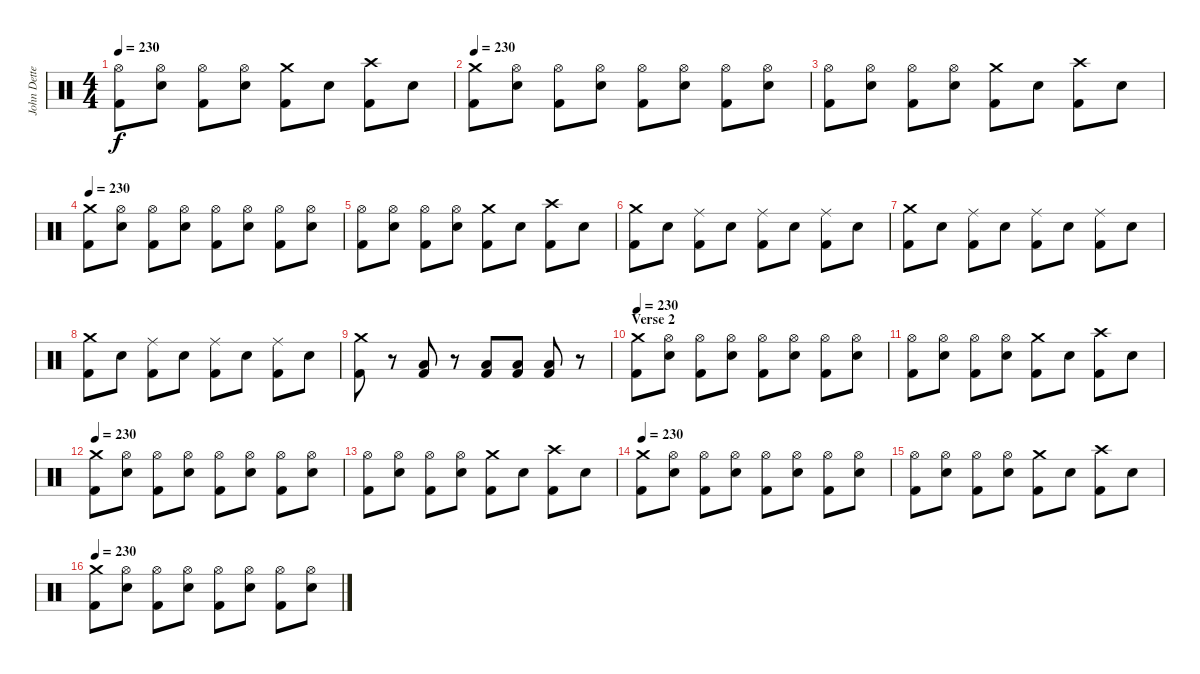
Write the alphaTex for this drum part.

\track ("John Dette" "John Dette") {instrument percussion}
\staff {score}
\articulation defaults
\ts (4 4)
\tempo 230
\clef neutral
\ks c
("Hi-Hat (open)" "Kick (hit) 2").8{dy f} ("Hi-Hat (open)" "Snare (hit) 2").8 ("Hi-Hat (open)" "Kick (hit) 2").8 ("Hi-Hat (open)" "Snare (hit) 2").8 ("Crash medium (hit)" "Kick (hit) 2").8 "Snare (hit) 2".8 ("Crash high (hit)" "Kick (hit) 2").8 "Snare (hit) 2".8 |
\tempo 230
("Crash medium (hit)" "Kick (hit) 2").8 ("Hi-Hat (open)" "Snare (hit) 2").8 ("Hi-Hat (open)" "Kick (hit) 2").8 ("Hi-Hat (open)" "Snare (hit) 2").8 ("Hi-Hat (open)" "Kick (hit) 2").8 ("Hi-Hat (open)" "Snare (hit) 2").8 ("Hi-Hat (open)" "Kick (hit) 2").8 ("Hi-Hat (open)" "Snare (hit) 2").8 |
("Hi-Hat (open)" "Kick (hit) 2").8 ("Hi-Hat (open)" "Snare (hit) 2").8 ("Hi-Hat (open)" "Kick (hit) 2").8 ("Hi-Hat (open)" "Snare (hit) 2").8 ("Crash medium (hit)" "Kick (hit) 2").8 "Snare (hit) 2".8 ("Crash high (hit)" "Kick (hit) 2").8 "Snare (hit) 2".8 |
\tempo 230
("Crash medium (hit)" "Kick (hit) 2").8 ("Hi-Hat (open)" "Snare (hit) 2").8 ("Hi-Hat (open)" "Kick (hit) 2").8 ("Hi-Hat (open)" "Snare (hit) 2").8 ("Hi-Hat (open)" "Kick (hit) 2").8 ("Hi-Hat (open)" "Snare (hit) 2").8 ("Hi-Hat (open)" "Kick (hit) 2").8 ("Hi-Hat (open)" "Snare (hit) 2").8 |
("Hi-Hat (open)" "Kick (hit) 2").8 ("Hi-Hat (open)" "Snare (hit) 2").8 ("Hi-Hat (open)" "Kick (hit) 2").8 ("Hi-Hat (open)" "Snare (hit) 2").8 ("Crash medium (hit)" "Kick (hit) 2").8 "Snare (hit) 2".8 ("Crash high (hit)" "Kick (hit) 2").8 "Snare (hit) 2".8 |
("Crash medium (hit)" "Kick (hit) 2").8 "Snare (hit) 2".8 ("Ride (middle)" "Kick (hit) 2").8 "Snare (hit) 2".8 ("Ride (middle)" "Kick (hit) 2").8 "Snare (hit) 2".8 ("Ride (middle)" "Kick (hit) 2").8 "Snare (hit) 2".8 |
("Crash medium (hit)" "Kick (hit) 2").8 "Snare (hit) 2".8 ("Ride (middle)" "Kick (hit) 2").8 "Snare (hit) 2".8 ("Ride (middle)" "Kick (hit) 2").8 "Snare (hit) 2".8 ("Ride (middle)" "Kick (hit) 2").8 "Snare (hit) 2".8 |
("Crash medium (hit)" "Kick (hit) 2").8 "Snare (hit) 2".8 ("Ride (middle)" "Kick (hit) 2").8 "Snare (hit) 2".8 ("Ride (middle)" "Kick (hit) 2").8 "Snare (hit) 2".8 ("Ride (middle)" "Kick (hit) 2").8 "Snare (hit) 2".8 |
("Crash medium (hit)" "Kick (hit) 2").8 r.8 ("Low Floor Tom (hit)" "Kick (hit) 2").8 r.8 ("Low Floor Tom (hit)" "Kick (hit) 2").8 ("Low Floor Tom (hit)" "Kick (hit) 2").8 ("Low Floor Tom (hit)" "Kick (hit) 2").8 r.8 |
\section ("" "Verse 2")
\tempo 230
("Crash medium (hit)" "Kick (hit) 2").8 ("Hi-Hat (open)" "Snare (hit) 2").8 ("Hi-Hat (open)" "Kick (hit) 2").8 ("Hi-Hat (open)" "Snare (hit) 2").8 ("Hi-Hat (open)" "Kick (hit) 2").8 ("Hi-Hat (open)" "Snare (hit) 2").8 ("Hi-Hat (open)" "Kick (hit) 2").8 ("Hi-Hat (open)" "Snare (hit) 2").8 |
("Hi-Hat (open)" "Kick (hit) 2").8 ("Hi-Hat (open)" "Snare (hit) 2").8 ("Hi-Hat (open)" "Kick (hit) 2").8 ("Hi-Hat (open)" "Snare (hit) 2").8 ("Crash medium (hit)" "Kick (hit) 2").8 "Snare (hit) 2".8 ("Crash high (hit)" "Kick (hit) 2").8 "Snare (hit) 2".8 |
\tempo 230
("Crash medium (hit)" "Kick (hit) 2").8 ("Hi-Hat (open)" "Snare (hit) 2").8 ("Hi-Hat (open)" "Kick (hit) 2").8 ("Hi-Hat (open)" "Snare (hit) 2").8 ("Hi-Hat (open)" "Kick (hit) 2").8 ("Hi-Hat (open)" "Snare (hit) 2").8 ("Hi-Hat (open)" "Kick (hit) 2").8 ("Hi-Hat (open)" "Snare (hit) 2").8 |
("Hi-Hat (open)" "Kick (hit) 2").8 ("Hi-Hat (open)" "Snare (hit) 2").8 ("Hi-Hat (open)" "Kick (hit) 2").8 ("Hi-Hat (open)" "Snare (hit) 2").8 ("Crash medium (hit)" "Kick (hit) 2").8 "Snare (hit) 2".8 ("Crash high (hit)" "Kick (hit) 2").8 "Snare (hit) 2".8 |
\tempo 230
("Crash medium (hit)" "Kick (hit) 2").8 ("Hi-Hat (open)" "Snare (hit) 2").8 ("Hi-Hat (open)" "Kick (hit) 2").8 ("Hi-Hat (open)" "Snare (hit) 2").8 ("Hi-Hat (open)" "Kick (hit) 2").8 ("Hi-Hat (open)" "Snare (hit) 2").8 ("Hi-Hat (open)" "Kick (hit) 2").8 ("Hi-Hat (open)" "Snare (hit) 2").8 |
("Hi-Hat (open)" "Kick (hit) 2").8 ("Hi-Hat (open)" "Snare (hit) 2").8 ("Hi-Hat (open)" "Kick (hit) 2").8 ("Hi-Hat (open)" "Snare (hit) 2").8 ("Crash medium (hit)" "Kick (hit) 2").8 "Snare (hit) 2".8 ("Crash high (hit)" "Kick (hit) 2").8 "Snare (hit) 2".8 |
\tempo 230
("Crash medium (hit)" "Kick (hit) 2").8 ("Hi-Hat (open)" "Snare (hit) 2").8 ("Hi-Hat (open)" "Kick (hit) 2").8 ("Hi-Hat (open)" "Snare (hit) 2").8 ("Hi-Hat (open)" "Kick (hit) 2").8 ("Hi-Hat (open)" "Snare (hit) 2").8 ("Hi-Hat (open)" "Kick (hit) 2").8 ("Hi-Hat (open)" "Snare (hit) 2").8
